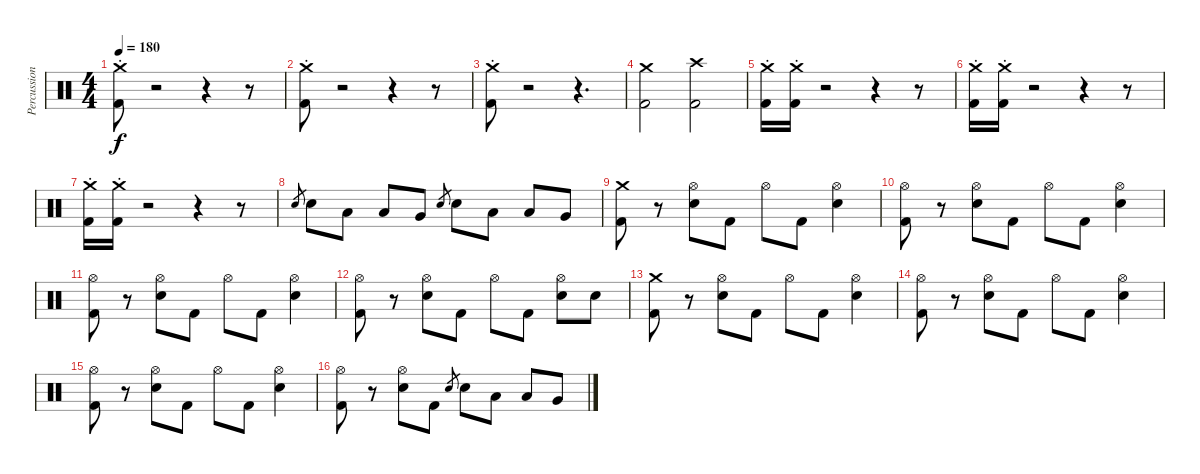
\track ("Percussioni" "Percussion") {instrument percussion}
\staff {score}
\articulation defaults
\ts (4 4)
\tempo 180
\clef neutral
\ks c
("Crash medium (hit)"{st} "Kick (hit) 2").8{dy f} r.2 r.4 r.8 |
("Crash medium (hit)"{st} "Kick (hit) 2").8 r.2 r.4 r.8 |
("Crash medium (hit)"{st} "Kick (hit) 2").8 r.2 r.4{d} |
("Crash medium (hit)" "Kick (hit) 2").2 ("Crash high (hit)" "Kick (hit) 2").2 |
("Crash medium (hit)"{st} "Kick (hit) 2").16 ("Crash medium (hit)"{st} "Kick (hit) 2").16 r.2 r.4 r.8 |
("Crash medium (hit)"{st} "Kick (hit) 2").16 ("Crash medium (hit)"{st} "Kick (hit) 2").16 r.2 r.4 r.8 |
("Crash medium (hit)"{st} "Kick (hit) 2").16 ("Crash medium (hit)"{st} "Kick (hit) 2").16 r.2 r.4 r.8 |
"Electric Snare (hit)".8{gr} "Electric Snare (hit)".8 "Low Tom (hit)".8 "Low Tom (hit)".8 "Very Low Tom (hit)".8 "Electric Snare (hit)".8{gr} "Electric Snare (hit)".8 "Low Tom (hit)".8 "Low Tom (hit)".8 "Very Low Tom (hit)".8 |
("Crash medium (hit)" "Kick (hit) 2").8 r.8 ("Hi-Hat (open)" "Electric Snare (hit)").8 "Kick (hit) 2".8 "Hi-Hat (open)".8 "Kick (hit) 2".8 ("Hi-Hat (open)" "Electric Snare (hit)").4 |
("Hi-Hat (open)" "Kick (hit) 2").8 r.8 ("Hi-Hat (open)" "Electric Snare (hit)").8 "Kick (hit) 2".8 "Hi-Hat (open)".8 "Kick (hit) 2".8 ("Hi-Hat (open)" "Electric Snare (hit)").4 |
("Hi-Hat (open)" "Kick (hit) 2").8 r.8 ("Hi-Hat (open)" "Electric Snare (hit)").8 "Kick (hit) 2".8 "Hi-Hat (open)".8 "Kick (hit) 2".8 ("Hi-Hat (open)" "Electric Snare (hit)").4 |
("Hi-Hat (open)" "Kick (hit) 2").8 r.8 ("Hi-Hat (open)" "Electric Snare (hit)").8 "Kick (hit) 2".8 "Hi-Hat (open)".8 "Kick (hit) 2".8 ("Hi-Hat (open)" "Electric Snare (hit)").8 "Electric Snare (hit)".8 |
("Crash medium (hit)" "Kick (hit) 2").8 r.8 ("Hi-Hat (open)" "Electric Snare (hit)").8 "Kick (hit) 2".8 "Hi-Hat (open)".8 "Kick (hit) 2".8 ("Hi-Hat (open)" "Electric Snare (hit)").4 |
("Hi-Hat (open)" "Kick (hit) 2").8 r.8 ("Hi-Hat (open)" "Electric Snare (hit)").8 "Kick (hit) 2".8 "Hi-Hat (open)".8 "Kick (hit) 2".8 ("Hi-Hat (open)" "Electric Snare (hit)").4 |
("Hi-Hat (open)" "Kick (hit) 2").8 r.8 ("Hi-Hat (open)" "Electric Snare (hit)").8 "Kick (hit) 2".8 "Hi-Hat (open)".8 "Kick (hit) 2".8 ("Hi-Hat (open)" "Electric Snare (hit)").4 |
("Hi-Hat (open)" "Kick (hit) 2").8 r.8 ("Hi-Hat (open)" "Electric Snare (hit)").8 "Kick (hit) 2".8 "Electric Snare (hit)".8{gr} "Electric Snare (hit)".8 "Low Tom (hit)".8 "Low Tom (hit)".8 "Very Low Tom (hit)".8
